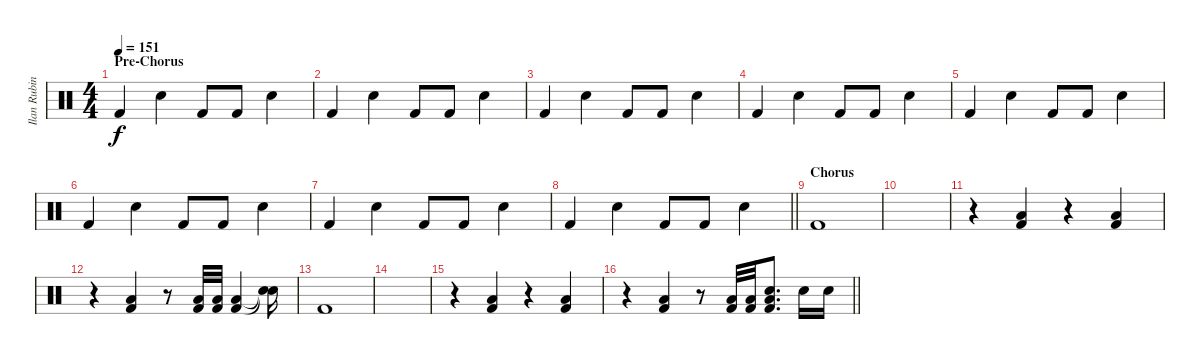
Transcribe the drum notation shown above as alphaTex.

\track ("Ilan Rubin [Drums]" "Ilan Rubin") {instrument percussion}
\staff {score}
\articulation defaults
\ts (4 4)
\section ("" "Pre-Chorus")
\tempo 151
\clef neutral
\ks c "Kick (hit) 2".4{dy f} "Snare (hit) 2".4 "Kick (hit) 2".8 "Kick (hit) 2".8 "Snare (hit) 2".4
|
"Kick (hit) 2".4 "Snare (hit) 2".4 "Kick (hit) 2".8 "Kick (hit) 2".8 "Snare (hit) 2".4 |
"Kick (hit) 2".4 "Snare (hit) 2".4 "Kick (hit) 2".8 "Kick (hit) 2".8 "Snare (hit) 2".4 |
"Kick (hit) 2".4 "Snare (hit) 2".4 "Kick (hit) 2".8 "Kick (hit) 2".8 "Snare (hit) 2".4 |
"Kick (hit) 2".4 "Snare (hit) 2".4 "Kick (hit) 2".8 "Kick (hit) 2".8 "Snare (hit) 2".4 |
"Kick (hit) 2".4 "Snare (hit) 2".4 "Kick (hit) 2".8 "Kick (hit) 2".8 "Snare (hit) 2".4 |
"Kick (hit) 2".4 "Snare (hit) 2".4 "Kick (hit) 2".8 "Kick (hit) 2".8 "Snare (hit) 2".4 |
\barLineRight lightlight "Kick (hit) 2".4 "Snare (hit) 2".4 "Kick (hit) 2".8 "Kick (hit) 2".8 "Snare (hit) 2".4
|
\section ("" "Chorus")
"Kick (hit) 2".1 |
|
r.4 ("Low Floor Tom (hit)" "Kick (hit) 2").4 r.4 ("Low Floor Tom (hit)" "Kick (hit) 2").4 |
r.4 ("Low Floor Tom (hit)" "Kick (hit) 2").4 r.8 ("Low Floor Tom (hit)" "Kick (hit) 2").32 ("Low Floor Tom (hit)" "Kick (hit) 2").32 ("Low Floor Tom (hit)" "Kick (hit) 2").4 ("Snare (hit)"{t} "Snare (hit)"{t}).16 |
"Kick (hit) 2".1 |
|
r.4 ("Low Floor Tom (hit)" "Kick (hit) 2").4 r.4 ("Low Floor Tom (hit)" "Kick (hit) 2").4 |
\barLineRight lightlight
r.4 ("Low Floor Tom (hit)" "Kick (hit) 2").4 r.8 ("Low Floor Tom (hit)" "Kick (hit) 2").32 ("Low Floor Tom (hit)" "Kick (hit) 2").32 ("Snare (hit) 2" "Low Floor Tom (hit)" "Kick (hit) 2").8{d} "Snare (hit) 2".16 "Snare (hit) 2".16
